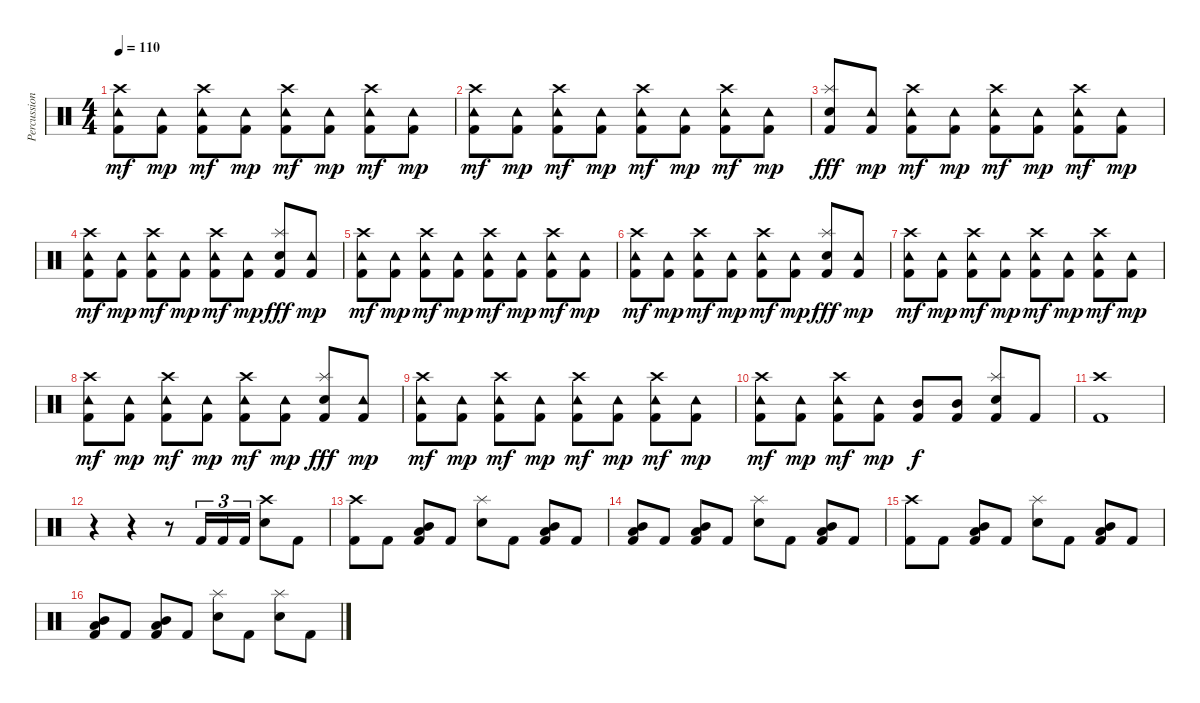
\track ("Percussion" "Percussion") {instrument percussion}
\staff {score}
\articulation defaults
\ts (4 4)
\tempo 110
\clef neutral
\ks c
("Crash high (hit)" "Tambourine (hit)" "Kick (hit) 2").8{dy mf} ("Tambourine (hit)" "Kick (hit) 2").8{dy mp} ("Crash high (hit)" "Tambourine (hit)" "Kick (hit) 2").8{dy mf} ("Tambourine (hit)" "Kick (hit) 2").8{dy mp} ("Crash high (hit)" "Tambourine (hit)" "Kick (hit) 2").8{dy mf} ("Tambourine (hit)" "Kick (hit) 2").8{dy mp} ("Crash high (hit)" "Tambourine (hit)" "Kick (hit) 2").8{dy mf} ("Tambourine (hit)" "Kick (hit) 2").8{dy mp} |
("Crash high (hit)" "Tambourine (hit)" "Kick (hit) 2").8{dy mf} ("Tambourine (hit)" "Kick (hit) 2").8{dy mp} ("Crash high (hit)" "Tambourine (hit)" "Kick (hit) 2").8{dy mf} ("Tambourine (hit)" "Kick (hit) 2").8{dy mp} ("Crash high (hit)" "Tambourine (hit)" "Kick (hit) 2").8{dy mf} ("Tambourine (hit)" "Kick (hit) 2").8{dy mp} ("Crash high (hit)" "Tambourine (hit)" "Kick (hit) 2").8{dy mf} ("Tambourine (hit)" "Kick (hit) 2").8{dy mp} |
("Splash (hit)" "Snare (hit) 2" "Kick (hit) 2").8{dy fff} ("Tambourine (hit)" "Kick (hit) 2").8{dy mp} ("Crash high (hit)" "Tambourine (hit)" "Kick (hit) 2").8{dy mf} ("Tambourine (hit)" "Kick (hit) 2").8{dy mp} ("Crash high (hit)" "Tambourine (hit)" "Kick (hit) 2").8{dy mf} ("Tambourine (hit)" "Kick (hit) 2").8{dy mp} ("Crash high (hit)" "Tambourine (hit)" "Kick (hit) 2").8{dy mf} ("Tambourine (hit)" "Kick (hit) 2").8{dy mp} |
("Crash high (hit)" "Tambourine (hit)" "Kick (hit) 2").8{dy mf} ("Tambourine (hit)" "Kick (hit) 2").8{dy mp} ("Crash high (hit)" "Tambourine (hit)" "Kick (hit) 2").8{dy mf} ("Tambourine (hit)" "Kick (hit) 2").8{dy mp} ("Crash high (hit)" "Tambourine (hit)" "Kick (hit) 2").8{dy mf} ("Tambourine (hit)" "Kick (hit) 2").8{dy mp} ("Splash (hit)" "Snare (hit) 2" "Kick (hit) 2").8{dy fff} ("Tambourine (hit)" "Kick (hit) 2").8{dy mp} |
("Crash high (hit)" "Tambourine (hit)" "Kick (hit) 2").8{dy mf} ("Tambourine (hit)" "Kick (hit) 2").8{dy mp} ("Crash high (hit)" "Tambourine (hit)" "Kick (hit) 2").8{dy mf} ("Tambourine (hit)" "Kick (hit) 2").8{dy mp} ("Crash high (hit)" "Tambourine (hit)" "Kick (hit) 2").8{dy mf} ("Tambourine (hit)" "Kick (hit) 2").8{dy mp} ("Crash high (hit)" "Tambourine (hit)" "Kick (hit) 2").8{dy mf} ("Tambourine (hit)" "Kick (hit) 2").8{dy mp} |
("Crash high (hit)" "Tambourine (hit)" "Kick (hit) 2").8{dy mf} ("Tambourine (hit)" "Kick (hit) 2").8{dy mp} ("Crash high (hit)" "Tambourine (hit)" "Kick (hit) 2").8{dy mf} ("Tambourine (hit)" "Kick (hit) 2").8{dy mp} ("Crash high (hit)" "Tambourine (hit)" "Kick (hit) 2").8{dy mf} ("Tambourine (hit)" "Kick (hit) 2").8{dy mp} ("Splash (hit)" "Snare (hit) 2" "Kick (hit) 2").8{dy fff} ("Tambourine (hit)" "Kick (hit) 2").8{dy mp} |
("Crash high (hit)" "Tambourine (hit)" "Kick (hit) 2").8{dy mf} ("Tambourine (hit)" "Kick (hit) 2").8{dy mp} ("Crash high (hit)" "Tambourine (hit)" "Kick (hit) 2").8{dy mf} ("Tambourine (hit)" "Kick (hit) 2").8{dy mp} ("Crash high (hit)" "Tambourine (hit)" "Kick (hit) 2").8{dy mf} ("Tambourine (hit)" "Kick (hit) 2").8{dy mp} ("Crash high (hit)" "Tambourine (hit)" "Kick (hit) 2").8{dy mf} ("Tambourine (hit)" "Kick (hit) 2").8{dy mp} |
("Crash high (hit)" "Tambourine (hit)" "Kick (hit) 2").8{dy mf} ("Tambourine (hit)" "Kick (hit) 2").8{dy mp} ("Crash high (hit)" "Tambourine (hit)" "Kick (hit) 2").8{dy mf} ("Tambourine (hit)" "Kick (hit) 2").8{dy mp} ("Crash high (hit)" "Tambourine (hit)" "Kick (hit) 2").8{dy mf} ("Tambourine (hit)" "Kick (hit) 2").8{dy mp} ("Splash (hit)" "Snare (hit) 2" "Kick (hit) 2").8{dy fff} ("Tambourine (hit)" "Kick (hit) 2").8{dy mp} |
("Crash high (hit)" "Tambourine (hit)" "Kick (hit) 2").8{dy mf} ("Tambourine (hit)" "Kick (hit) 2").8{dy mp} ("Crash high (hit)" "Tambourine (hit)" "Kick (hit) 2").8{dy mf} ("Tambourine (hit)" "Kick (hit) 2").8{dy mp} ("Crash high (hit)" "Tambourine (hit)" "Kick (hit) 2").8{dy mf} ("Tambourine (hit)" "Kick (hit) 2").8{dy mp} ("Crash high (hit)" "Tambourine (hit)" "Kick (hit) 2").8{dy mf} ("Tambourine (hit)" "Kick (hit) 2").8{dy mp} |
("Crash high (hit)" "Tambourine (hit)" "Kick (hit) 2").8{dy mf} ("Tambourine (hit)" "Kick (hit) 2").8{dy mp} ("Crash high (hit)" "Tambourine (hit)" "Kick (hit) 2").8{dy mf} ("Tambourine (hit)" "Kick (hit) 2").8{dy mp} ("Mid Tom (hit)" "Kick (hit) 2").8{dy f} ("Mid Tom (hit)" "Kick (hit) 2").8 ("Splash (hit)" "Snare (hit) 2" "Kick (hit) 2").8 "Kick (hit) 2".8 |
("Crash high (hit)" "Kick (hit) 2").1 |
r.4 r.4 r.8 "Kick (hit) 2".16{tu (3 2)} "Kick (hit) 2".16{tu (3 2)} "Kick (hit) 2".16{tu (3 2)} ("Crash high (hit)" "Snare (hit) 2").8 "Kick (hit) 2".8 |
("Crash high (hit)" "Kick (hit) 2").8 "Kick (hit) 2".8 ("Mid Tom (hit)" "Low Tom (hit)" "Kick (hit) 2").8 "Kick (hit) 2".8 ("Splash (hit)" "Snare (hit) 2").8 "Kick (hit) 2".8 ("Mid Tom (hit)" "Low Tom (hit)" "Kick (hit) 2").8 "Kick (hit) 2".8 |
("Mid Tom (hit)" "Low Tom (hit)" "Kick (hit) 2").8 "Kick (hit) 2".8 ("Mid Tom (hit)" "Low Tom (hit)" "Kick (hit) 2").8 "Kick (hit) 2".8 ("Splash (hit)" "Snare (hit) 2").8 "Kick (hit) 2".8 ("Mid Tom (hit)" "Low Tom (hit)" "Kick (hit) 2").8 "Kick (hit) 2".8 |
("Crash high (hit)" "Kick (hit) 2").8 "Kick (hit) 2".8 ("Mid Tom (hit)" "Low Tom (hit)" "Kick (hit) 2").8 "Kick (hit) 2".8 ("Splash (hit)" "Snare (hit) 2").8 "Kick (hit) 2".8 ("Mid Tom (hit)" "Low Tom (hit)" "Kick (hit) 2").8 "Kick (hit) 2".8 |
("Mid Tom (hit)" "Low Tom (hit)" "Kick (hit) 2").8 "Kick (hit) 2".8 ("Mid Tom (hit)" "Low Tom (hit)" "Kick (hit) 2").8 "Kick (hit) 2".8 ("Splash (hit)" "Snare (hit) 2").8 "Kick (hit) 2".8 ("Splash (hit)" "Snare (hit) 2").8 "Kick (hit) 2".8
